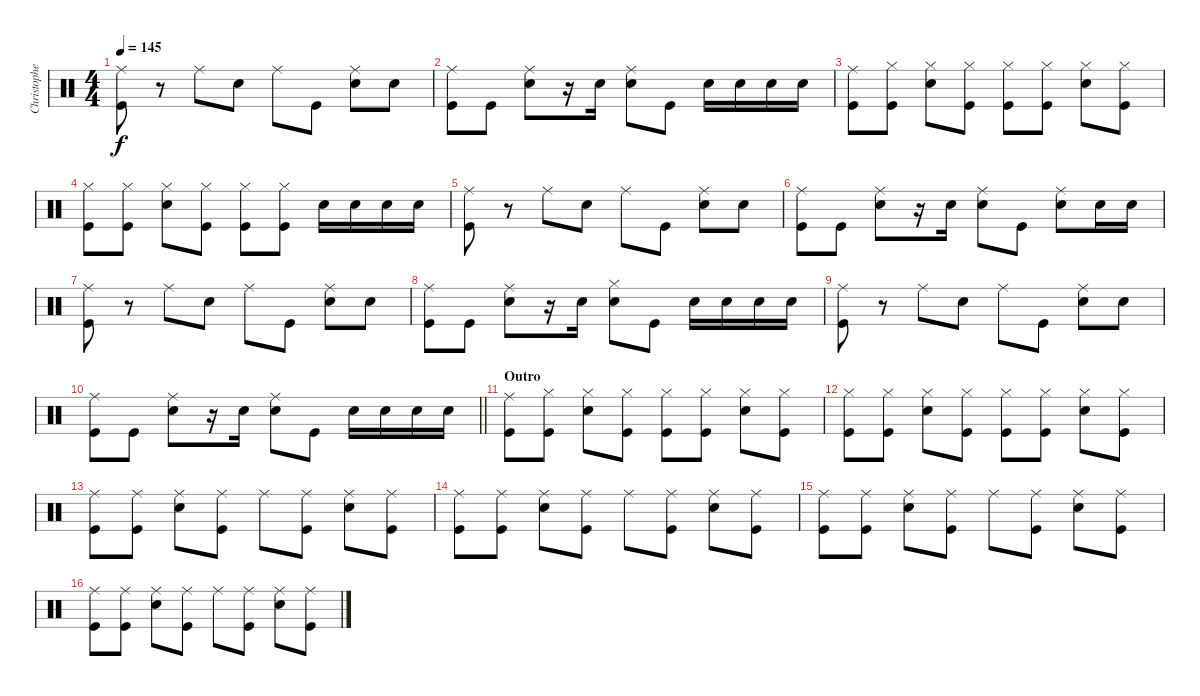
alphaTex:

\track ("Christopher - Drums" "Christophe") {instrument percussion}
\staff {score}
\articulation defaults
\ts (4 4)
\tempo 145
\clef neutral
\ks c
("Ride (middle)" "Kick (hit)").8{dy f} r.8 "Ride (middle)".8 "Snare (hit) 2".8 "Ride (middle)".8 "Kick (hit)".8 ("Ride (middle)" "Snare (hit) 2").8 "Snare (hit) 2".8 |
("Ride (middle)" "Kick (hit)").8 "Kick (hit)".8 ("Ride (middle)" "Snare (hit) 2").8 r.16 "Snare (hit) 2".16 ("Ride (middle)" "Snare (hit) 2").8 "Kick (hit)".8 "Snare (hit) 2".16 "Snare (hit) 2".16 "Snare (hit) 2".16 "Snare (hit) 2".16 |
("Ride (middle)" "Kick (hit)").8 ("Hi-Hat (closed)" "Kick (hit)").8 ("Hi-Hat (closed)" "Snare (hit) 2").8 ("Hi-Hat (closed)" "Kick (hit)").8 ("Hi-Hat (closed)" "Kick (hit)").8 ("Hi-Hat (closed)" "Kick (hit)").8 ("Hi-Hat (closed)" "Snare (hit) 2").8 ("Hi-Hat (closed)" "Kick (hit)").8 |
("Hi-Hat (closed)" "Kick (hit)").8 ("Hi-Hat (closed)" "Kick (hit)").8 ("Hi-Hat (closed)" "Snare (hit) 2").8 ("Hi-Hat (closed)" "Kick (hit)").8 ("Hi-Hat (closed)" "Kick (hit)").8 ("Hi-Hat (closed)" "Kick (hit)").8 "Snare (hit) 2".16 "Snare (hit) 2".16 "Snare (hit) 2".16 "Snare (hit) 2".16 |
("Ride (middle)" "Kick (hit)").8 r.8 "Ride (middle)".8 "Snare (hit) 2".8 "Ride (middle)".8 "Kick (hit)".8 ("Ride (middle)" "Snare (hit) 2").8 "Snare (hit) 2".8 |
("Ride (middle)" "Kick (hit)").8 "Kick (hit)".8 ("Ride (middle)" "Snare (hit) 2").8 r.16 "Snare (hit) 2".16 ("Ride (middle)" "Snare (hit) 2").8 "Kick (hit)".8 ("Ride (middle)" "Snare (hit) 2").8 "Snare (hit) 2".16 "Snare (hit) 2".16 |
("Ride (middle)" "Kick (hit)").8 r.8 "Ride (middle)".8 "Snare (hit) 2".8 "Ride (middle)".8 "Kick (hit)".8 ("Ride (middle)" "Snare (hit) 2").8 "Snare (hit) 2".8 |
("Ride (middle)" "Kick (hit)").8 "Kick (hit)".8 ("Ride (middle)" "Snare (hit) 2").8 r.16 "Snare (hit) 2".16 ("Hi-Hat (closed)" "Snare (hit) 2").8 "Kick (hit)".8 "Snare (hit) 2".16 "Snare (hit) 2".16 "Snare (hit) 2".16 "Snare (hit) 2".16 |
("Ride (middle)" "Kick (hit)").8 r.8 "Ride (middle)".8 "Snare (hit) 2".8 "Ride (middle)".8 "Kick (hit)".8 ("Ride (middle)" "Snare (hit) 2").8 "Snare (hit) 2".8 |
\barLineRight lightlight
("Ride (middle)" "Kick (hit)").8 "Kick (hit)".8 ("Ride (middle)" "Snare (hit) 2").8 r.16 "Snare (hit) 2".16 ("Ride (middle)" "Snare (hit) 2").8 "Kick (hit)".8 "Snare (hit) 2".16 "Snare (hit) 2".16 "Snare (hit) 2".16 "Snare (hit) 2".16 |
\section ("" "Outro")
("Ride (middle)" "Kick (hit)").8 ("Hi-Hat (closed)" "Kick (hit)").8 ("Hi-Hat (closed)" "Snare (hit) 2").8 ("Hi-Hat (closed)" "Kick (hit)").8 ("Hi-Hat (closed)" "Kick (hit)").8 ("Hi-Hat (closed)" "Kick (hit)").8 ("Hi-Hat (closed)" "Snare (hit) 2").8 ("Hi-Hat (closed)" "Kick (hit)").8 |
("Hi-Hat (closed)" "Kick (hit)").8 ("Hi-Hat (closed)" "Kick (hit)").8 ("Hi-Hat (closed)" "Snare (hit) 2").8 ("Hi-Hat (closed)" "Kick (hit)").8 ("Hi-Hat (closed)" "Kick (hit)").8 ("Hi-Hat (closed)" "Kick (hit)").8 ("Hi-Hat (closed)" "Snare (hit) 2").8 ("Hi-Hat (closed)" "Kick (hit)").8 |
("Ride (middle)" "Kick (hit)").8 ("Ride (middle)" "Kick (hit)").8 ("Ride (middle)" "Snare (hit) 2").8 ("Ride (middle)" "Kick (hit)").8 "Ride (middle)".8 ("Ride (middle)" "Kick (hit)").8 ("Ride (middle)" "Snare (hit) 2").8 ("Ride (middle)" "Kick (hit)").8 |
("Ride (middle)" "Kick (hit)").8 ("Ride (middle)" "Kick (hit)").8 ("Ride (middle)" "Snare (hit) 2").8 ("Ride (middle)" "Kick (hit)").8 "Ride (middle)".8 ("Ride (middle)" "Kick (hit)").8 ("Ride (middle)" "Snare (hit) 2").8 ("Ride (middle)" "Kick (hit)").8 |
("Ride (middle)" "Kick (hit)").8 ("Ride (middle)" "Kick (hit)").8 ("Ride (middle)" "Snare (hit) 2").8 ("Ride (middle)" "Kick (hit)").8 "Ride (middle)".8 ("Ride (middle)" "Kick (hit)").8 ("Ride (middle)" "Snare (hit) 2").8 ("Ride (middle)" "Kick (hit)").8 |
("Ride (middle)" "Kick (hit)").8 ("Ride (middle)" "Kick (hit)").8 ("Ride (middle)" "Snare (hit) 2").8 ("Ride (middle)" "Kick (hit)").8 "Ride (middle)".8 ("Ride (middle)" "Kick (hit)").8 ("Ride (middle)" "Snare (hit) 2").8 ("Ride (middle)" "Kick (hit)").8
